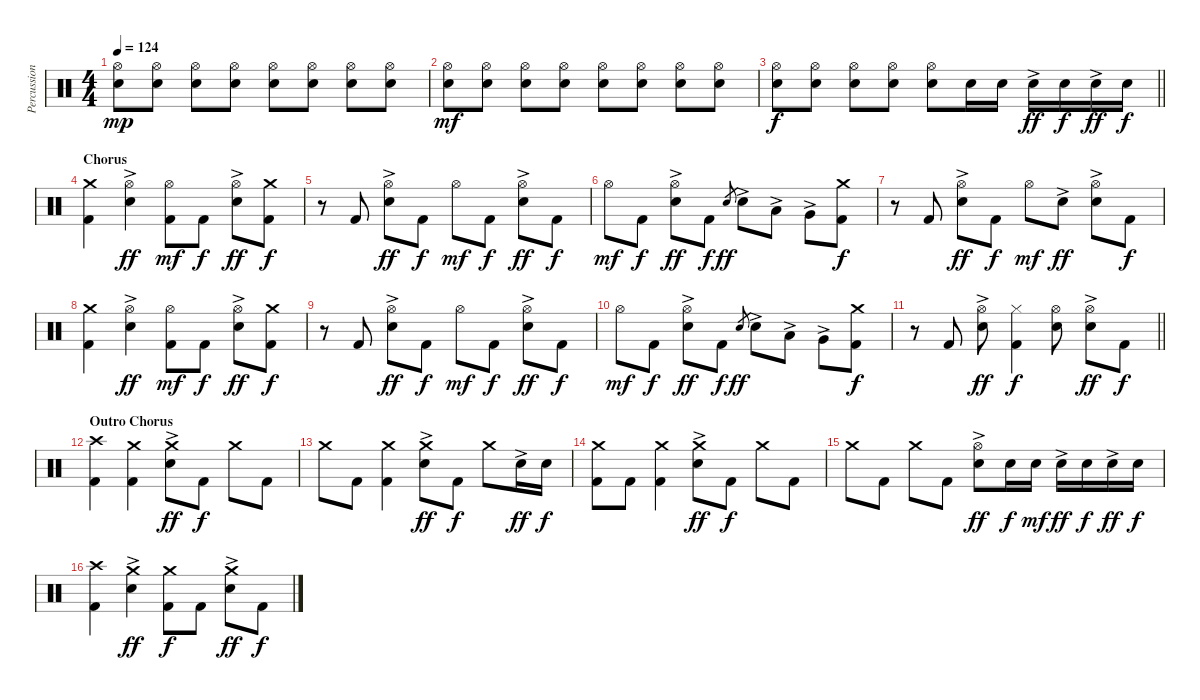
\track ("Percussion" "Percussion") {instrument percussion}
\staff {score}
\articulation defaults
\ts (4 4)
\tempo 124
\clef neutral
\ks c
("Hi-Hat (open)" "Electric Snare (hit)").8{dy mp} ("Hi-Hat (open)" "Electric Snare (hit)").8 ("Hi-Hat (open)" "Electric Snare (hit)").8 ("Hi-Hat (open)" "Electric Snare (hit)").8 ("Hi-Hat (open)" "Electric Snare (hit)").8 ("Hi-Hat (open)" "Electric Snare (hit)").8 ("Hi-Hat (open)" "Electric Snare (hit)").8 ("Hi-Hat (open)" "Electric Snare (hit)").8 |
("Hi-Hat (open)" "Electric Snare (hit)").8{dy mf} ("Hi-Hat (open)" "Electric Snare (hit)").8 ("Hi-Hat (open)" "Electric Snare (hit)").8 ("Hi-Hat (open)" "Electric Snare (hit)").8 ("Hi-Hat (open)" "Electric Snare (hit)").8 ("Hi-Hat (open)" "Electric Snare (hit)").8 ("Hi-Hat (open)" "Electric Snare (hit)").8 ("Hi-Hat (open)" "Electric Snare (hit)").8 |
\barLineRight lightlight
("Hi-Hat (open)" "Electric Snare (hit)").8{dy f} ("Hi-Hat (open)" "Electric Snare (hit)").8 ("Hi-Hat (open)" "Electric Snare (hit)").8 ("Hi-Hat (open)" "Electric Snare (hit)").8 ("Hi-Hat (open)" "Electric Snare (hit)").8 "Electric Snare (hit)".16 "Electric Snare (hit)".16 "Electric Snare (hit)"{ac}.16{dy ff} "Electric Snare (hit)".16{dy f} "Electric Snare (hit)"{ac}.16{dy ff} "Electric Snare (hit)".16{dy f} |
\section ("" "Chorus")
("Crash medium (hit)" "Kick (hit) 2").4 ("Hi-Hat (open)" "Electric Snare (hit)"{ac}).4{dy ff} ("Hi-Hat (open)" "Kick (hit) 2").8{dy mf} "Kick (hit) 2".8{dy f} ("Hi-Hat (open)" "Electric Snare (hit)"{ac}).8{dy ff} ("Crash medium (hit)" "Kick (hit) 2").8{dy f} |
r.8 "Kick (hit) 2".8 ("Hi-Hat (open)" "Electric Snare (hit)"{ac}).8{dy ff} "Kick (hit) 2".8{dy f} "Hi-Hat (open)".8{dy mf} "Kick (hit) 2".8{dy f} ("Hi-Hat (open)" "Electric Snare (hit)"{ac}).8{dy ff} "Kick (hit) 2".8{dy f} |
"Hi-Hat (open)".8{dy mf} "Kick (hit) 2".8{dy f} ("Hi-Hat (open)" "Electric Snare (hit)"{ac}).8{dy ff} "Kick (hit) 2".8{dy f} "Electric Snare (hit)".8{gr dy ff} "Electric Snare (hit)"{ac}.8 "Low Tom (hit)"{ac}.8 "Very Low Tom (hit)"{ac}.8 ("Crash medium (hit)" "Kick (hit) 2").8{dy f} |
r.8 "Kick (hit) 2".8 ("Hi-Hat (open)" "Electric Snare (hit)"{ac}).8{dy ff} "Kick (hit) 2".8{dy f} "Hi-Hat (open)".8{dy mf} "Electric Snare (hit)"{ac}.8{dy ff} ("Hi-Hat (open)" "Electric Snare (hit)"{ac}).8 "Kick (hit) 2".8{dy f} |
("Crash medium (hit)" "Kick (hit) 2").4 ("Hi-Hat (open)" "Electric Snare (hit)"{ac}).4{dy ff} ("Hi-Hat (open)" "Kick (hit) 2").8{dy mf} "Kick (hit) 2".8{dy f} ("Hi-Hat (open)" "Electric Snare (hit)"{ac}).8{dy ff} ("Crash medium (hit)" "Kick (hit) 2").8{dy f} |
r.8 "Kick (hit) 2".8 ("Hi-Hat (open)" "Electric Snare (hit)"{ac}).8{dy ff} "Kick (hit) 2".8{dy f} "Hi-Hat (open)".8{dy mf} "Kick (hit) 2".8{dy f} ("Hi-Hat (open)" "Electric Snare (hit)"{ac}).8{dy ff} "Kick (hit) 2".8{dy f} |
"Hi-Hat (open)".8{dy mf} "Kick (hit) 2".8{dy f} ("Hi-Hat (open)" "Electric Snare (hit)"{ac}).8{dy ff} "Kick (hit) 2".8{dy f} "Electric Snare (hit)".8{gr dy ff} "Electric Snare (hit)"{ac}.8 "Low Tom (hit)"{ac}.8 "Very Low Tom (hit)"{ac}.8 ("Crash medium (hit)" "Kick (hit) 2").8{dy f} |
\barLineRight lightlight
r.8 "Kick (hit) 2".8 ("Hi-Hat (open)" "Electric Snare (hit)"{ac}).8{dy ff} ("Hi-Hat (closed)" "Kick (hit) 2").4{dy f} ("Hi-Hat (open)" "Electric Snare (hit)").8 ("Hi-Hat (open)" "Electric Snare (hit)"{ac}).8{dy ff} "Kick (hit) 2".8{dy f} |
\section ("" "Outro Chorus")
("Crash high (hit)" "Kick (hit) 2").4 ("Crash medium (hit)" "Kick (hit) 2").4 ("Crash medium (hit)" "Electric Snare (hit)"{ac}).8{dy ff} "Kick (hit) 2".8{dy f} "Crash medium (hit)".8 "Kick (hit) 2".8 |
"Crash medium (hit)".8 "Kick (hit) 2".8 ("Crash medium (hit)" "Kick (hit) 2").4 ("Crash medium (hit)" "Electric Snare (hit)"{ac}).8{dy ff} "Kick (hit) 2".8{dy f} "Crash medium (hit)".8 "Electric Snare (hit)"{ac}.16{dy ff} "Electric Snare (hit)".16{dy f} |
("Crash medium (hit)" "Kick (hit) 2").8 "Kick (hit) 2".8 ("Crash medium (hit)" "Kick (hit) 2").4 ("Crash medium (hit)" "Electric Snare (hit)"{ac}).8{dy ff} "Kick (hit) 2".8{dy f} "Crash medium (hit)".8 "Kick (hit) 2".8 |
"Crash medium (hit)".8 "Kick (hit) 2".8 "Crash medium (hit)".8 "Kick (hit) 2".8 ("Hi-Hat (open)" "Electric Snare (hit)"{ac}).8{dy ff} "Electric Snare (hit)".16{dy f} "Electric Snare (hit)".16{dy mf} "Electric Snare (hit)"{ac}.16{dy ff} "Electric Snare (hit)".16{dy f} "Electric Snare (hit)"{ac}.16{dy ff} "Electric Snare (hit)".16{dy f} |
("Crash high (hit)" "Kick (hit) 2").4 ("Crash medium (hit)" "Electric Snare (hit)"{ac}).4{dy ff} ("Crash medium (hit)" "Kick (hit) 2").8{dy f} "Kick (hit) 2".8 ("Crash medium (hit)" "Electric Snare (hit)"{ac}).8{dy ff} "Kick (hit) 2".8{dy f}
